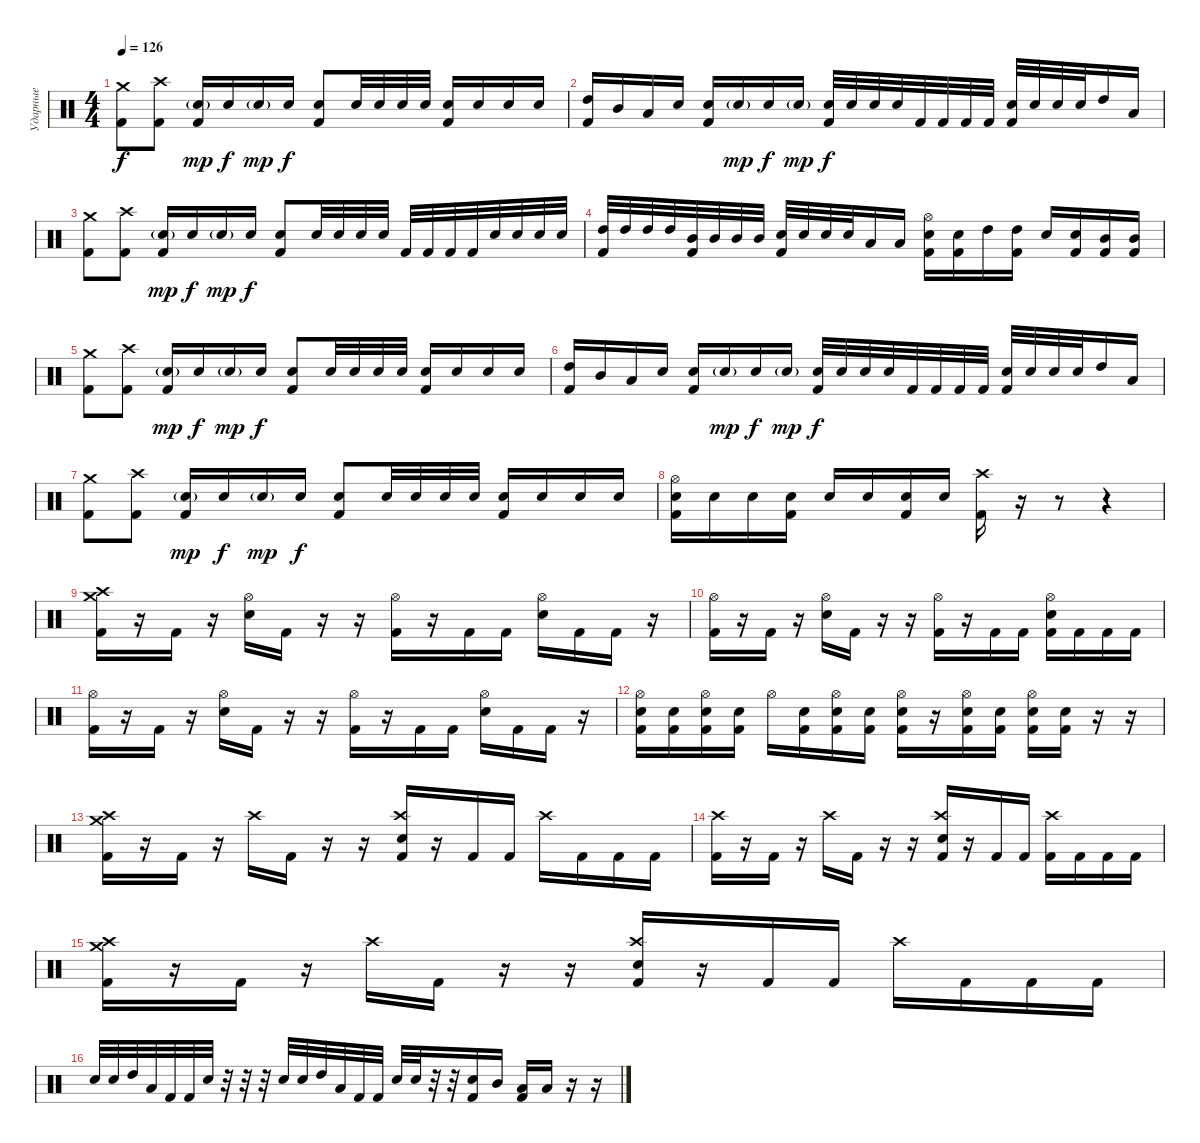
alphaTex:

\track ("Ударные" "Ударные") {instrument percussion}
\staff {score}
\articulation defaults
\ts (4 4)
\tempo 126
\clef neutral
\ks c
("Crash medium (hit)" "Kick (hit) 2").8{dy f} ("Crash high (hit)" "Kick (hit) 2").8 ("Kick (hit) 2" "Electric Snare (hit)"{g}).16{dy mp} "Electric Snare (hit)".16{dy f} "Electric Snare (hit)"{g}.16{dy mp} "Electric Snare (hit)".16{dy f} ("Kick (hit) 2" "Electric Snare (hit)").8 "Electric Snare (hit)".32 "Electric Snare (hit)".32 "Electric Snare (hit)".32 "Electric Snare (hit)".32 ("Kick (hit) 2" "Electric Snare (hit)").16 "Electric Snare (hit)".16 "Electric Snare (hit)".16 "Electric Snare (hit)".16 |
("High Tom (hit)" "Kick (hit) 2").16 "Mid Tom (hit)".16 "Low Tom (hit)".16 "Electric Snare (hit)".16 ("Electric Snare (hit)" "Kick (hit) 2").16 "Electric Snare (hit)"{g}.16{dy mp} "Electric Snare (hit)".16{dy f} "Electric Snare (hit)"{g}.16{dy mp} ("Electric Snare (hit)" "Kick (hit) 2").32{dy f} "Electric Snare (hit)".32 "Electric Snare (hit)".32 "Electric Snare (hit)".32 "Kick (hit) 2".32 "Kick (hit) 2".32 "Kick (hit) 2".32 "Kick (hit) 2".32 ("Electric Snare (hit)" "Kick (hit) 2").32 "Electric Snare (hit)".32 "Electric Snare (hit)".32 "Electric Snare (hit)".32 "High Tom (hit)".16 "Low Tom (hit)".16 |
("Crash medium (hit)" "Kick (hit) 2").8 ("Crash high (hit)" "Kick (hit) 2").8 ("Kick (hit) 2" "Electric Snare (hit)"{g}).16{dy mp} "Electric Snare (hit)".16{dy f} "Electric Snare (hit)"{g}.16{dy mp} "Electric Snare (hit)".16{dy f} ("Kick (hit) 2" "Electric Snare (hit)").8 "Electric Snare (hit)".32 "Electric Snare (hit)".32 "Electric Snare (hit)".32 "Electric Snare (hit)".32 "Kick (hit) 2".32 "Kick (hit) 2".32 "Kick (hit) 2".32 "Kick (hit) 2".32 "Electric Snare (hit)".32 "Electric Snare (hit)".32 "Electric Snare (hit)".32 "Electric Snare (hit)".32 |
("High Tom (hit)" "Kick (hit) 2").32 "High Tom (hit)".32 "High Tom (hit)".32 "High Tom (hit)".32 ("Mid Tom (hit)" "Kick (hit) 2").32 "Mid Tom (hit)".32 "Mid Tom (hit)".32 "Mid Tom (hit)".32 ("Electric Snare (hit)" "Kick (hit) 2").32 "Electric Snare (hit)".32 "Electric Snare (hit)".32 "Electric Snare (hit)".32 "Low Tom (hit)".16 "Low Tom (hit)".16 ("Hi-Hat (open)" "Electric Snare (hit)" "Kick (hit) 2").16 ("Electric Snare (hit)" "Kick (hit) 2").16 "High Tom (hit)".16 ("High Tom (hit)" "Kick (hit) 2").16 "Electric Snare (hit)".16 ("Electric Snare (hit)" "Kick (hit) 2").16 ("Mid Tom (hit)" "Kick (hit) 2").16 ("Mid Tom (hit)" "Kick (hit) 2").16 |
("Crash medium (hit)" "Kick (hit) 2").8 ("Crash high (hit)" "Kick (hit) 2").8 ("Kick (hit) 2" "Electric Snare (hit)"{g}).16{dy mp} "Electric Snare (hit)".16{dy f} "Electric Snare (hit)"{g}.16{dy mp} "Electric Snare (hit)".16{dy f} ("Kick (hit) 2" "Electric Snare (hit)").8 "Electric Snare (hit)".32 "Electric Snare (hit)".32 "Electric Snare (hit)".32 "Electric Snare (hit)".32 ("Kick (hit) 2" "Electric Snare (hit)").16 "Electric Snare (hit)".16 "Electric Snare (hit)".16 "Electric Snare (hit)".16 |
("High Tom (hit)" "Kick (hit) 2").16 "Mid Tom (hit)".16 "Low Tom (hit)".16 "Electric Snare (hit)".16 ("Electric Snare (hit)" "Kick (hit) 2").16 "Electric Snare (hit)"{g}.16{dy mp} "Electric Snare (hit)".16{dy f} "Electric Snare (hit)"{g}.16{dy mp} ("Electric Snare (hit)" "Kick (hit) 2").32{dy f} "Electric Snare (hit)".32 "Electric Snare (hit)".32 "Electric Snare (hit)".32 "Kick (hit) 2".32 "Kick (hit) 2".32 "Kick (hit) 2".32 "Kick (hit) 2".32 ("Electric Snare (hit)" "Kick (hit) 2").32 "Electric Snare (hit)".32 "Electric Snare (hit)".32 "Electric Snare (hit)".32 "High Tom (hit)".16 "Low Tom (hit)".16 |
("Crash medium (hit)" "Kick (hit) 2").8 ("Crash high (hit)" "Kick (hit) 2").8 ("Kick (hit) 2" "Electric Snare (hit)"{g}).16{dy mp} "Electric Snare (hit)".16{dy f} "Electric Snare (hit)"{g}.16{dy mp} "Electric Snare (hit)".16{dy f} ("Kick (hit) 2" "Electric Snare (hit)").8 "Electric Snare (hit)".32 "Electric Snare (hit)".32 "Electric Snare (hit)".32 "Electric Snare (hit)".32 ("Kick (hit) 2" "Electric Snare (hit)").16 "Electric Snare (hit)".16 "Electric Snare (hit)".16 "Electric Snare (hit)".16 |
("Hi-Hat (open)" "Kick (hit) 2" "Electric Snare (hit)").16 "Electric Snare (hit)".16 "Electric Snare (hit)".16 ("Kick (hit) 2" "Electric Snare (hit)").16 "Electric Snare (hit)".16 "Electric Snare (hit)".16 ("Kick (hit) 2" "Electric Snare (hit)").16 "Electric Snare (hit)".16 ("Crash high (hit)" "Kick (hit) 2").16 r.16 r.8 r.4 |
("Crash medium (hit)" "Crash high (hit)" "Kick (hit) 2").16 r.16 "Kick (hit) 2".16 r.16 ("Hi-Hat (open)" "Electric Snare (hit)").16 "Kick (hit) 2".16 r.16 r.16 ("Hi-Hat (open)" "Kick (hit) 2").16 r.16 "Kick (hit) 2".16 "Kick (hit) 2".16 ("Hi-Hat (open)" "Electric Snare (hit)").16 "Kick (hit) 2".16 "Kick (hit) 2".16 r.16 |
("Hi-Hat (open)" "Kick (hit) 2").16 r.16 "Kick (hit) 2".16 r.16 ("Hi-Hat (open)" "Electric Snare (hit)").16 "Kick (hit) 2".16 r.16 r.16 ("Hi-Hat (open)" "Kick (hit) 2").16 r.16 "Kick (hit) 2".16 "Kick (hit) 2".16 ("Hi-Hat (open)" "Electric Snare (hit)" "Kick (hit) 2").16 "Kick (hit) 2".16 "Kick (hit) 2".16 "Kick (hit) 2".16 |
("Hi-Hat (open)" "Kick (hit) 2").16 r.16 "Kick (hit) 2".16 r.16 ("Hi-Hat (open)" "Electric Snare (hit)").16 "Kick (hit) 2".16 r.16 r.16 ("Hi-Hat (open)" "Kick (hit) 2").16 r.16 "Kick (hit) 2".16 "Kick (hit) 2".16 ("Hi-Hat (open)" "Electric Snare (hit)").16 "Kick (hit) 2".16 "Kick (hit) 2".16 r.16 |
("Hi-Hat (open)" "Electric Snare (hit)" "Kick (hit) 2").16 ("Electric Snare (hit)" "Kick (hit) 2").16 ("Hi-Hat (open)" "Electric Snare (hit)" "Kick (hit) 2").16 ("Electric Snare (hit)" "Kick (hit) 2").16 "Hi-Hat (open)".16 ("Electric Snare (hit)" "Kick (hit) 2").16 ("Hi-Hat (open)" "Electric Snare (hit)" "Kick (hit) 2").16 ("Electric Snare (hit)" "Kick (hit) 2").16 ("Hi-Hat (open)" "Electric Snare (hit)" "Kick (hit) 2").16 r.16 ("Hi-Hat (open)" "Electric Snare (hit)" "Kick (hit) 2").16 ("Electric Snare (hit)" "Kick (hit) 2").16 ("Hi-Hat (open)" "Electric Snare (hit)" "Kick (hit) 2").16 ("Electric Snare (hit)" "Kick (hit) 2").16 r.16 r.16 |
("Crash high (hit)" "Crash medium (hit)" "Kick (hit) 2").16 r.16 "Kick (hit) 2".16 r.16 "Crash high (hit)".16 "Kick (hit) 2".16 r.16 r.16 ("Crash high (hit)" "Electric Snare (hit)" "Kick (hit) 2").16 r.16 "Kick (hit) 2".16 "Kick (hit) 2".16 "Crash high (hit)".16 "Kick (hit) 2".16 "Kick (hit) 2".16 "Kick (hit) 2".16 |
("Crash high (hit)" "Kick (hit) 2").16 r.16 "Kick (hit) 2".16 r.16 "Crash high (hit)".16 "Kick (hit) 2".16 r.16 r.16 ("Crash high (hit)" "Electric Snare (hit)" "Kick (hit) 2").16 r.16 "Kick (hit) 2".16 "Kick (hit) 2".16 ("Crash high (hit)" "Kick (hit) 2").16 "Kick (hit) 2".16 "Kick (hit) 2".16 "Kick (hit) 2".16 |
("Crash high (hit)" "Crash medium (hit)" "Kick (hit) 2").16 r.16 "Kick (hit) 2".16 r.16 "Crash high (hit)".16 "Kick (hit) 2".16 r.16 r.16 ("Crash high (hit)" "Electric Snare (hit)" "Kick (hit) 2").16 r.16 "Kick (hit) 2".16 "Kick (hit) 2".16 "Crash high (hit)".16 "Kick (hit) 2".16 "Kick (hit) 2".16 "Kick (hit) 2".16 |
"Electric Snare (hit)".32 "Electric Snare (hit)".32 "High Tom (hit)".32 "Low Tom (hit)".32 "Kick (hit) 2".32 "Kick (hit) 2".32 "Electric Snare (hit)".32 r.32 r.32 r.32 "Electric Snare (hit)".32 "Electric Snare (hit)".32 "High Tom (hit)".32 "Low Tom (hit)".32 "Kick (hit) 2".32 "Kick (hit) 2".32 "Electric Snare (hit)".32 "Electric Snare (hit)".32 r.32 r.32 ("Electric Snare (hit)" "Kick (hit) 2").16 "Mid Tom (hit)".16 ("Low Tom (hit)" "Kick (hit) 2").16 "Low Tom (hit)".16 r.16 r.16
